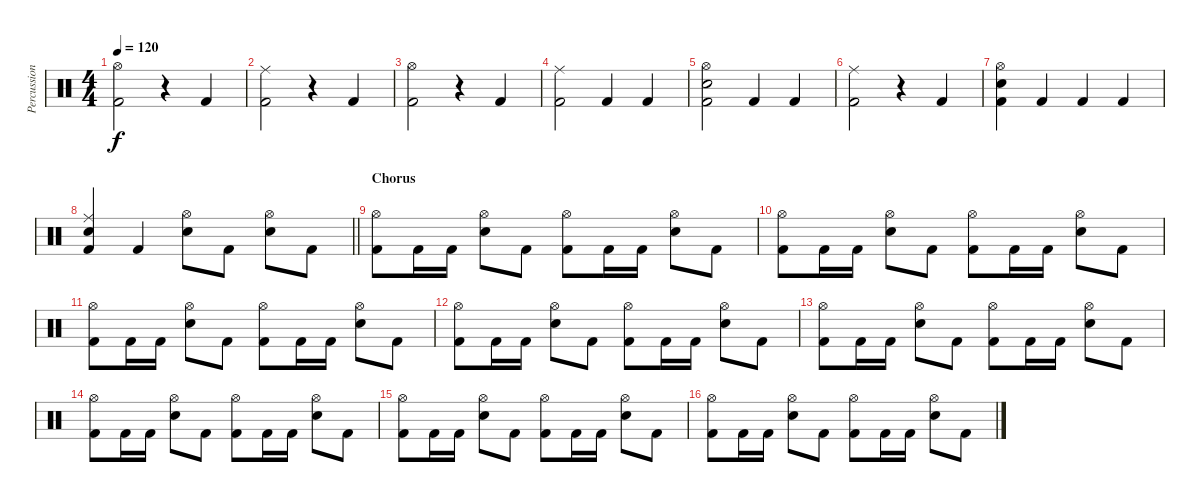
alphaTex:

\track ("Percussion" "Percussion") {instrument percussion}
\staff {score}
\articulation defaults
\ts (4 4)
\tempo 120
\clef neutral
\ks c
("Hi-Hat (open)" "Kick (hit) 2").2{dy f} r.4 "Kick (hit) 2".4 |
("Ride (middle)" "Kick (hit) 2").2 r.4 "Kick (hit) 2".4 |
("Hi-Hat (open)" "Kick (hit) 2").2 r.4 "Kick (hit) 2".4 |
("Ride (middle)" "Kick (hit) 2").2 "Kick (hit) 2".4 "Kick (hit) 2".4 |
("Hi-Hat (open)" "Electric Snare (hit)" "Kick (hit) 2").2 "Kick (hit) 2".4 "Kick (hit) 2".4 |
("Ride (middle)" "Kick (hit) 2").2 r.4 "Kick (hit) 2".4 |
("Hi-Hat (open)" "Electric Snare (hit)" "Kick (hit) 2").4 "Kick (hit) 2".4 "Kick (hit) 2".4 "Kick (hit) 2".4 |
\barLineRight lightlight
("Ride (middle)" "Electric Snare (hit)" "Kick (hit) 2").4 "Kick (hit) 2".4 ("Hi-Hat (open)" "Electric Snare (hit)").8 "Kick (hit) 2".8 ("Hi-Hat (open)" "Electric Snare (hit)").8 "Kick (hit) 2".8 |
\section ("" "Chorus")
("Hi-Hat (open)" "Kick (hit) 2").8 "Kick (hit) 2".16 "Kick (hit) 2".16 ("Hi-Hat (open)" "Electric Snare (hit)").8 "Kick (hit) 2".8 ("Hi-Hat (open)" "Kick (hit) 2").8 "Kick (hit) 2".16 "Kick (hit) 2".16 ("Hi-Hat (open)" "Electric Snare (hit)").8 "Kick (hit) 2".8 |
("Hi-Hat (open)" "Kick (hit) 2").8 "Kick (hit) 2".16 "Kick (hit) 2".16 ("Hi-Hat (open)" "Electric Snare (hit)").8 "Kick (hit) 2".8 ("Hi-Hat (open)" "Kick (hit) 2").8 "Kick (hit) 2".16 "Kick (hit) 2".16 ("Hi-Hat (open)" "Electric Snare (hit)").8 "Kick (hit) 2".8 |
("Hi-Hat (open)" "Kick (hit) 2").8 "Kick (hit) 2".16 "Kick (hit) 2".16 ("Hi-Hat (open)" "Electric Snare (hit)").8 "Kick (hit) 2".8 ("Hi-Hat (open)" "Kick (hit) 2").8 "Kick (hit) 2".16 "Kick (hit) 2".16 ("Hi-Hat (open)" "Electric Snare (hit)").8 "Kick (hit) 2".8 |
("Hi-Hat (open)" "Kick (hit) 2").8 "Kick (hit) 2".16 "Kick (hit) 2".16 ("Hi-Hat (open)" "Electric Snare (hit)").8 "Kick (hit) 2".8 ("Hi-Hat (open)" "Kick (hit) 2").8 "Kick (hit) 2".16 "Kick (hit) 2".16 ("Hi-Hat (open)" "Electric Snare (hit)").8 "Kick (hit) 2".8 |
("Hi-Hat (open)" "Kick (hit) 2").8 "Kick (hit) 2".16 "Kick (hit) 2".16 ("Hi-Hat (open)" "Electric Snare (hit)").8 "Kick (hit) 2".8 ("Hi-Hat (open)" "Kick (hit) 2").8 "Kick (hit) 2".16 "Kick (hit) 2".16 ("Hi-Hat (open)" "Electric Snare (hit)").8 "Kick (hit) 2".8 |
("Hi-Hat (open)" "Kick (hit) 2").8 "Kick (hit) 2".16 "Kick (hit) 2".16 ("Hi-Hat (open)" "Electric Snare (hit)").8 "Kick (hit) 2".8 ("Hi-Hat (open)" "Kick (hit) 2").8 "Kick (hit) 2".16 "Kick (hit) 2".16 ("Hi-Hat (open)" "Electric Snare (hit)").8 "Kick (hit) 2".8 |
("Hi-Hat (open)" "Kick (hit) 2").8 "Kick (hit) 2".16 "Kick (hit) 2".16 ("Hi-Hat (open)" "Electric Snare (hit)").8 "Kick (hit) 2".8 ("Hi-Hat (open)" "Kick (hit) 2").8 "Kick (hit) 2".16 "Kick (hit) 2".16 ("Hi-Hat (open)" "Electric Snare (hit)").8 "Kick (hit) 2".8 |
("Hi-Hat (open)" "Kick (hit) 2").8 "Kick (hit) 2".16 "Kick (hit) 2".16 ("Hi-Hat (open)" "Electric Snare (hit)").8 "Kick (hit) 2".8 ("Hi-Hat (open)" "Kick (hit) 2").8 "Kick (hit) 2".16 "Kick (hit) 2".16 ("Hi-Hat (open)" "Electric Snare (hit)").8 "Kick (hit) 2".8
